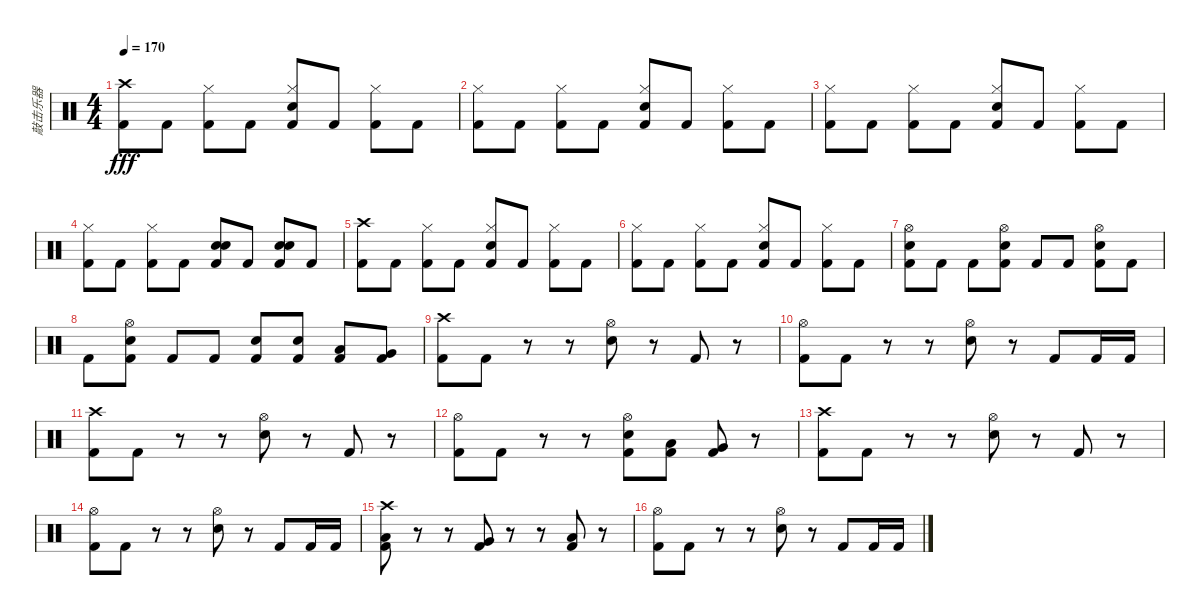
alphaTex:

\track ("敲击乐器" "敲击乐器") {instrument percussion}
\staff {score}
\articulation defaults
\ts (4 4)
\tempo 170
\clef neutral
\ks c
("Crash high (hit)" "Kick (hit) 2").8{dy fff} "Kick (hit) 2".8 ("Hi-Hat (closed)" "Kick (hit) 2").8 "Kick (hit) 2".8 ("Hi-Hat (closed)" "Electric Snare (hit)" "Kick (hit) 2").8 "Kick (hit) 2".8 ("Hi-Hat (closed)" "Kick (hit) 2").8 "Kick (hit) 2".8 |
("Hi-Hat (closed)" "Kick (hit) 2").8 "Kick (hit) 2".8 ("Hi-Hat (closed)" "Kick (hit) 2").8 "Kick (hit) 2".8 ("Hi-Hat (closed)" "Electric Snare (hit)" "Kick (hit) 2").8 "Kick (hit) 2".8 ("Hi-Hat (closed)" "Kick (hit) 2").8 "Kick (hit) 2".8 |
("Hi-Hat (closed)" "Kick (hit) 2").8 "Kick (hit) 2".8 ("Hi-Hat (closed)" "Kick (hit) 2").8 "Kick (hit) 2".8 ("Hi-Hat (closed)" "Electric Snare (hit)" "Kick (hit) 2").8 "Kick (hit) 2".8 ("Hi-Hat (closed)" "Kick (hit) 2").8 "Kick (hit) 2".8 |
("Hi-Hat (closed)" "Kick (hit) 2").8 "Kick (hit) 2".8 ("Hi-Hat (closed)" "Kick (hit) 2").8 "Kick (hit) 2".8 ("Electric Snare (hit)" "Electric Snare (hit)" "Kick (hit) 2").8 "Kick (hit) 2".8 ("Electric Snare (hit)" "Electric Snare (hit)" "Kick (hit) 2").8 "Kick (hit) 2".8 |
("Crash high (hit)" "Kick (hit) 2").8 "Kick (hit) 2".8 ("Hi-Hat (closed)" "Kick (hit) 2").8 "Kick (hit) 2".8 ("Hi-Hat (closed)" "Electric Snare (hit)" "Kick (hit) 2").8 "Kick (hit) 2".8 ("Hi-Hat (closed)" "Kick (hit) 2").8 "Kick (hit) 2".8 |
("Hi-Hat (closed)" "Kick (hit) 2").8 "Kick (hit) 2".8 ("Hi-Hat (closed)" "Kick (hit) 2").8 "Kick (hit) 2".8 ("Hi-Hat (closed)" "Electric Snare (hit)" "Kick (hit) 2").8 "Kick (hit) 2".8 ("Hi-Hat (closed)" "Kick (hit) 2").8 "Kick (hit) 2".8 |
("Hi-Hat (open)" "Electric Snare (hit)" "Kick (hit) 2").8 "Kick (hit) 2".8 "Kick (hit) 2".8 ("Hi-Hat (open)" "Electric Snare (hit)" "Kick (hit) 2").8 "Kick (hit) 2".8 "Kick (hit) 2".8 ("Hi-Hat (open)" "Electric Snare (hit)" "Kick (hit) 2").8 "Kick (hit) 2".8 |
"Kick (hit) 2".8 ("Hi-Hat (open)" "Electric Snare (hit)" "Kick (hit) 2").8 "Kick (hit) 2".8 "Kick (hit) 2".8 ("Electric Snare (hit)" "Kick (hit) 2").8 ("Electric Snare (hit)" "Kick (hit) 2").8 ("Low Tom (hit)" "Kick (hit) 2").8 ("Very Low Tom (hit)" "Kick (hit) 2").8 |
("Crash high (hit)" "Kick (hit) 2").8 "Kick (hit) 2".8 r.8 r.8 ("Hi-Hat (open)" "Electric Snare (hit)").8 r.8 "Kick (hit) 2".8 r.8 |
("Hi-Hat (open)" "Kick (hit) 2").8 "Kick (hit) 2".8 r.8 r.8 ("Hi-Hat (open)" "Electric Snare (hit)").8 r.8 "Kick (hit) 2".8 "Kick (hit) 2".16 "Kick (hit) 2".16 |
("Crash high (hit)" "Kick (hit) 2").8 "Kick (hit) 2".8 r.8 r.8 ("Hi-Hat (open)" "Electric Snare (hit)").8 r.8 "Kick (hit) 2".8 r.8 |
("Hi-Hat (open)" "Kick (hit) 2").8 "Kick (hit) 2".8 r.8 r.8 ("Hi-Hat (open)" "Electric Snare (hit)" "Kick (hit) 2").8 ("Low Tom (hit)" "Kick (hit) 2").8 ("Very Low Tom (hit)" "Kick (hit) 2").8 r.8 |
("Crash high (hit)" "Kick (hit) 2").8 "Kick (hit) 2".8 r.8 r.8 ("Hi-Hat (open)" "Electric Snare (hit)").8 r.8 "Kick (hit) 2".8 r.8 |
("Hi-Hat (open)" "Kick (hit) 2").8 "Kick (hit) 2".8 r.8 r.8 ("Hi-Hat (open)" "Electric Snare (hit)").8 r.8 "Kick (hit) 2".8 "Kick (hit) 2".16 "Kick (hit) 2".16 |
("Crash high (hit)" "Low Tom (hit)" "Kick (hit) 2").8 r.8 r.8 ("Very Low Tom (hit)" "Kick (hit) 2").8 r.8 r.8 ("Low Floor Tom (hit)" "Kick (hit) 2").8 r.8 |
("Hi-Hat (open)" "Kick (hit) 2").8 "Kick (hit) 2".8 r.8 r.8 ("Hi-Hat (open)" "Electric Snare (hit)").8 r.8 "Kick (hit) 2".8 "Kick (hit) 2".16 "Kick (hit) 2".16
